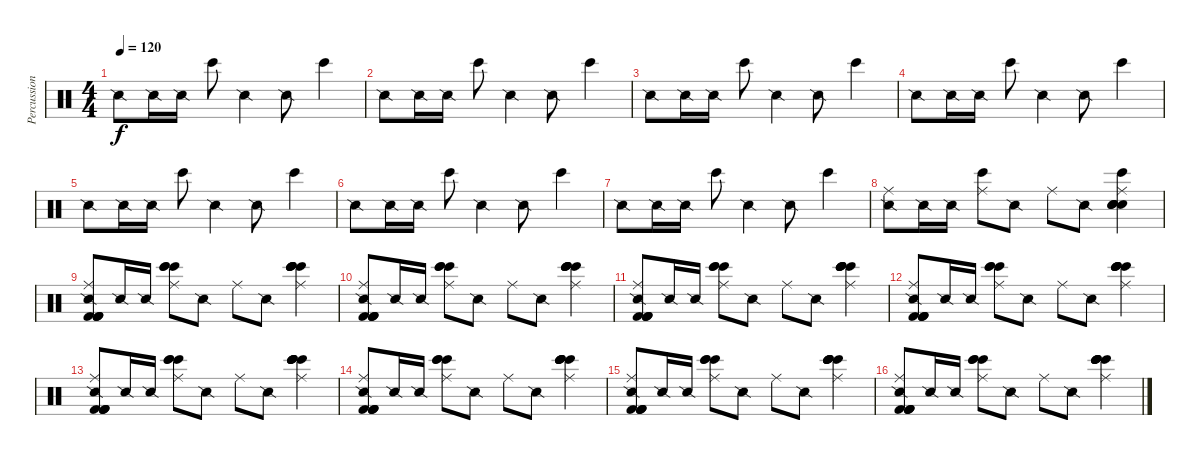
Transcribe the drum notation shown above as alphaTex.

\track ("Percussion" "Percussion") {instrument percussion}
\staff {score}
\articulation defaults
\ts (4 4)
\tempo 120
\clef neutral
\ks c "Snare (side stick) 2".8{dy f} "Snare (side stick) 2".16 "Snare (side stick) 2".16 "Bongo High (hit)".8 "Snare (side stick) 2".4 "Snare (side stick) 2".8 "Bongo High (hit)".4
|
"Snare (side stick) 2".8 "Snare (side stick) 2".16 "Snare (side stick) 2".16 "Bongo High (hit)".8 "Snare (side stick) 2".4 "Snare (side stick) 2".8 "Bongo High (hit)".4 |
"Snare (side stick) 2".8 "Snare (side stick) 2".16 "Snare (side stick) 2".16 "Bongo High (hit)".8 "Snare (side stick) 2".4 "Snare (side stick) 2".8 "Bongo High (hit)".4 |
"Snare (side stick) 2".8 "Snare (side stick) 2".16 "Snare (side stick) 2".16 "Bongo High (hit)".8 "Snare (side stick) 2".4 "Snare (side stick) 2".8 "Bongo High (hit)".4 |
"Snare (side stick) 2".8 "Snare (side stick) 2".16 "Snare (side stick) 2".16 "Bongo High (hit)".8 "Snare (side stick) 2".4 "Snare (side stick) 2".8 "Bongo High (hit)".4 |
"Snare (side stick) 2".8 "Snare (side stick) 2".16 "Snare (side stick) 2".16 "Bongo High (hit)".8 "Snare (side stick) 2".4 "Snare (side stick) 2".8 "Bongo High (hit)".4 |
"Snare (side stick) 2".8 "Snare (side stick) 2".16 "Snare (side stick) 2".16 "Bongo High (hit)".8 "Snare (side stick) 2".4 "Snare (side stick) 2".8 "Bongo High (hit)".4 |
("Snare (side stick) 2" "Ride (middle)").8 "Snare (side stick) 2".16 "Snare (side stick) 2".16 ("Bongo High (hit)" "Ride (middle)").8 "Snare (side stick) 2".8 "Ride (middle)".8 "Snare (side stick) 2".8 ("Bongo High (hit)" "Ride (middle)" "Snare (hit) 2" "Snare (hit) 2" "Snare (hit) 2" "Snare (hit) 2").4 |
("Snare (side stick) 2" "Ride (middle)" "Kick (hit) 2" "Kick (hit) 2" "Kick (hit) 2" "Kick (hit) 2").8 "Snare (side stick) 2".16 "Snare (side stick) 2".16 ("Bongo High (hit)" "Ride (middle)" "Bongo High (hit)" "Bongo High (hit)").8 "Snare (side stick) 2".8 "Ride (middle)".8 "Snare (side stick) 2".8 ("Bongo High (hit)" "Ride (middle)" "Bongo High (hit)" "Bongo High (hit)" "Bongo High (hit)" "Bongo High (hit)").4 |
("Snare (side stick) 2" "Ride (middle)" "Kick (hit) 2" "Kick (hit) 2" "Kick (hit) 2" "Kick (hit) 2").8 "Snare (side stick) 2".16 "Snare (side stick) 2".16 ("Bongo High (hit)" "Ride (middle)" "Bongo High (hit)" "Bongo High (hit)").8 "Snare (side stick) 2".8 "Ride (middle)".8 "Snare (side stick) 2".8 ("Bongo High (hit)" "Ride (middle)" "Bongo High (hit)" "Bongo High (hit)" "Bongo High (hit)" "Bongo High (hit)").4 |
("Snare (side stick) 2" "Ride (middle)" "Kick (hit) 2" "Kick (hit) 2" "Kick (hit) 2" "Kick (hit) 2").8 "Snare (side stick) 2".16 "Snare (side stick) 2".16 ("Bongo High (hit)" "Ride (middle)" "Bongo High (hit)" "Bongo High (hit)").8 "Snare (side stick) 2".8 "Ride (middle)".8 "Snare (side stick) 2".8 ("Bongo High (hit)" "Ride (middle)" "Bongo High (hit)" "Bongo High (hit)" "Bongo High (hit)" "Bongo High (hit)").4 |
("Snare (side stick) 2" "Ride (middle)" "Kick (hit) 2" "Kick (hit) 2" "Kick (hit) 2" "Kick (hit) 2").8 "Snare (side stick) 2".16 "Snare (side stick) 2".16 ("Bongo High (hit)" "Ride (middle)" "Bongo High (hit)" "Bongo High (hit)").8 "Snare (side stick) 2".8 "Ride (middle)".8 "Snare (side stick) 2".8 ("Bongo High (hit)" "Ride (middle)" "Bongo High (hit)" "Bongo High (hit)" "Bongo High (hit)" "Bongo High (hit)").4 |
("Snare (side stick) 2" "Ride (middle)" "Kick (hit) 2" "Kick (hit) 2" "Kick (hit) 2" "Kick (hit) 2").8 "Snare (side stick) 2".16 "Snare (side stick) 2".16 ("Bongo High (hit)" "Ride (middle)" "Bongo High (hit)" "Bongo High (hit)").8 "Snare (side stick) 2".8 "Ride (middle)".8 "Snare (side stick) 2".8 ("Bongo High (hit)" "Ride (middle)" "Bongo High (hit)" "Bongo High (hit)" "Bongo High (hit)" "Bongo High (hit)").4 |
("Snare (side stick) 2" "Ride (middle)" "Kick (hit) 2" "Kick (hit) 2" "Kick (hit) 2" "Kick (hit) 2").8 "Snare (side stick) 2".16 "Snare (side stick) 2".16 ("Bongo High (hit)" "Ride (middle)" "Bongo High (hit)" "Bongo High (hit)").8 "Snare (side stick) 2".8 "Ride (middle)".8 "Snare (side stick) 2".8 ("Bongo High (hit)" "Ride (middle)" "Bongo High (hit)" "Bongo High (hit)" "Bongo High (hit)" "Bongo High (hit)").4 |
("Snare (side stick) 2" "Ride (middle)" "Kick (hit) 2" "Kick (hit) 2" "Kick (hit) 2" "Kick (hit) 2").8 "Snare (side stick) 2".16 "Snare (side stick) 2".16 ("Bongo High (hit)" "Ride (middle)" "Bongo High (hit)" "Bongo High (hit)").8 "Snare (side stick) 2".8 "Ride (middle)".8 "Snare (side stick) 2".8 ("Bongo High (hit)" "Ride (middle)" "Bongo High (hit)" "Bongo High (hit)" "Bongo High (hit)" "Bongo High (hit)").4 |
("Snare (side stick) 2" "Ride (middle)" "Kick (hit) 2" "Kick (hit) 2" "Kick (hit) 2" "Kick (hit) 2").8 "Snare (side stick) 2".16 "Snare (side stick) 2".16 ("Bongo High (hit)" "Ride (middle)" "Bongo High (hit)" "Bongo High (hit)").8 "Snare (side stick) 2".8 "Ride (middle)".8 "Snare (side stick) 2".8 ("Bongo High (hit)" "Ride (middle)" "Bongo High (hit)" "Bongo High (hit)" "Bongo High (hit)" "Bongo High (hit)").4
